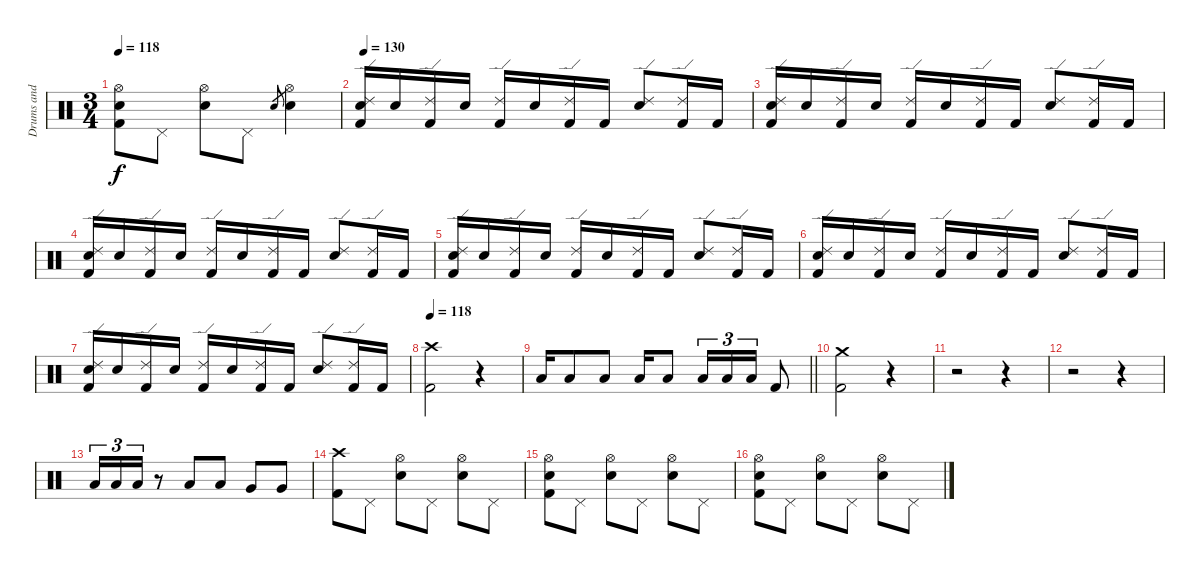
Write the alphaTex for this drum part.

\track ("Drums and percussion" "Drums and ") {instrument percussion}
\staff {score}
\articulation defaults
\ts (3 4)
\tempo 118
\clef neutral
\ks c
("Hi-Hat (open)" "Snare (hit) 2" "Kick (hit) 2").8{dy f} "Pedal Hi-Hat (hit)".8 ("Hi-Hat (open)" "Snare (hit) 2").8 "Pedal Hi-Hat (hit)".8 "Snare (hit) 2".8{gr} ("Hi-Hat (open)" "Snare (hit) 2").4 |
\tempo 130
("Ride (edge) 2" "Electric Snare (hit)" "Kick (hit) 2").16 "Electric Snare (hit)".16 ("Ride (edge) 2" "Kick (hit) 2").16 "Electric Snare (hit)".16 ("Ride (edge) 2" "Kick (hit) 2").16 "Electric Snare (hit)".16 ("Ride (edge) 2" "Kick (hit) 2").16 "Kick (hit) 2".16 ("Ride (edge) 2" "Electric Snare (hit)").8 ("Ride (edge) 2" "Kick (hit) 2").16 "Kick (hit) 2".16 |
("Ride (edge) 2" "Electric Snare (hit)" "Kick (hit) 2").16 "Electric Snare (hit)".16 ("Ride (edge) 2" "Kick (hit) 2").16 "Electric Snare (hit)".16 ("Ride (edge) 2" "Kick (hit) 2").16 "Electric Snare (hit)".16 ("Ride (edge) 2" "Kick (hit) 2").16 "Kick (hit) 2".16 ("Ride (edge) 2" "Electric Snare (hit)").8 ("Ride (edge) 2" "Kick (hit) 2").16 "Kick (hit) 2".16 |
("Ride (edge) 2" "Electric Snare (hit)" "Kick (hit) 2").16 "Electric Snare (hit)".16 ("Ride (edge) 2" "Kick (hit) 2").16 "Electric Snare (hit)".16 ("Ride (edge) 2" "Kick (hit) 2").16 "Electric Snare (hit)".16 ("Ride (edge) 2" "Kick (hit) 2").16 "Kick (hit) 2".16 ("Ride (edge) 2" "Electric Snare (hit)").8 ("Ride (edge) 2" "Kick (hit) 2").16 "Kick (hit) 2".16 |
("Ride (edge) 2" "Electric Snare (hit)" "Kick (hit) 2").16 "Electric Snare (hit)".16 ("Ride (edge) 2" "Kick (hit) 2").16 "Electric Snare (hit)".16 ("Ride (edge) 2" "Kick (hit) 2").16 "Electric Snare (hit)".16 ("Ride (edge) 2" "Kick (hit) 2").16 "Kick (hit) 2".16 ("Ride (edge) 2" "Electric Snare (hit)").8 ("Ride (edge) 2" "Kick (hit) 2").16 "Kick (hit) 2".16 |
("Ride (edge) 2" "Electric Snare (hit)" "Kick (hit) 2").16 "Electric Snare (hit)".16 ("Ride (edge) 2" "Kick (hit) 2").16 "Electric Snare (hit)".16 ("Ride (edge) 2" "Kick (hit) 2").16 "Electric Snare (hit)".16 ("Ride (edge) 2" "Kick (hit) 2").16 "Kick (hit) 2".16 ("Ride (edge) 2" "Electric Snare (hit)").8 ("Ride (edge) 2" "Kick (hit) 2").16 "Kick (hit) 2".16 |
("Ride (edge) 2" "Electric Snare (hit)" "Kick (hit) 2").16 "Electric Snare (hit)".16 ("Ride (edge) 2" "Kick (hit) 2").16 "Electric Snare (hit)".16 ("Ride (edge) 2" "Kick (hit) 2").16 "Electric Snare (hit)".16 ("Ride (edge) 2" "Kick (hit) 2").16 "Kick (hit) 2".16 ("Ride (edge) 2" "Electric Snare (hit)").8 ("Ride (edge) 2" "Kick (hit) 2").16 "Kick (hit) 2".16 |
\tempo 118
("Crash high (hit)" "Kick (hit) 2").2 r.4 |
\barLineRight lightlight "Low Tom (hit)".16 "Low Tom (hit)".8 "Low Tom (hit)".8 "Low Tom (hit)".16 "Low Tom (hit)".8 "Low Tom (hit)".16{tu (3 2)} "Low Floor Tom (hit)".16{tu (3 2)} "Low Floor Tom (hit)".16{tu (3 2)} "Kick (hit) 2".8
|
("Crash medium (hit)" "Kick (hit) 2").2 r.4 |
r.2 r.4 |
r.2 r.4 |
"Low Tom (hit)".16{tu (3 2)} "Low Tom (hit)".16{tu (3 2)} "Low Tom (hit)".16{tu (3 2)} r.8 "Low Tom (hit)".8 "Low Tom (hit)".8 "Very Low Tom (hit)".8 "Very Low Tom (hit)".8 |
("Crash high (hit)" "Kick (hit) 2").8 "Pedal Hi-Hat (hit)".8 ("Hi-Hat (open)" "Snare (hit) 2").8 "Pedal Hi-Hat (hit)".8 ("Hi-Hat (open)" "Snare (hit) 2").8 "Pedal Hi-Hat (hit)".8 |
("Hi-Hat (open)" "Snare (hit) 2" "Kick (hit) 2").8 "Pedal Hi-Hat (hit)".8 ("Hi-Hat (open)" "Snare (hit) 2").8 "Pedal Hi-Hat (hit)".8 ("Hi-Hat (open)" "Snare (hit) 2").8 "Pedal Hi-Hat (hit)".8 |
("Hi-Hat (open)" "Snare (hit) 2" "Kick (hit) 2").8 "Pedal Hi-Hat (hit)".8 ("Hi-Hat (open)" "Snare (hit) 2").8 "Pedal Hi-Hat (hit)".8 ("Hi-Hat (open)" "Snare (hit) 2").8 "Pedal Hi-Hat (hit)".8
